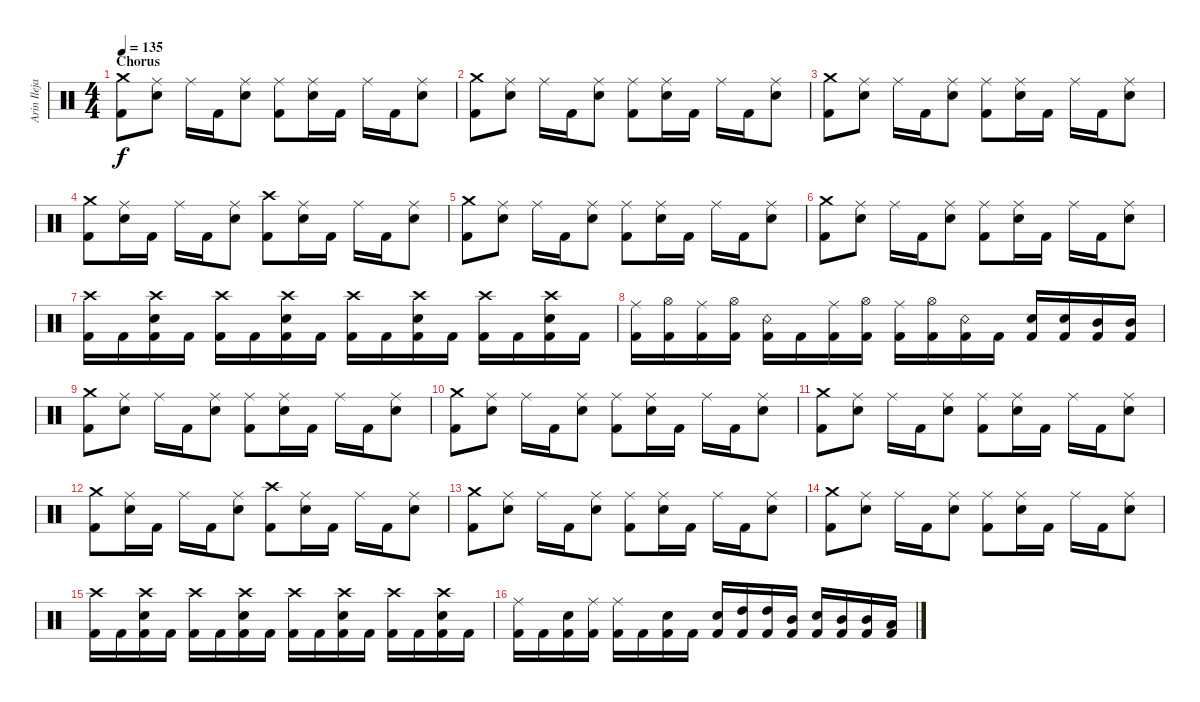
\track ("Arin Ilejay" "Arin Ileja") {instrument percussion}
\staff {score}
\articulation defaults
\ts (4 4)
\section ("" "Chorus")
\tempo 135
\clef neutral
\ks c
("Kick (hit) 2" "Crash medium (hit)").8{dy f} ("Ride (middle)" "Snare (hit) 2").8 "Ride (middle)".16 "Kick (hit) 2".16 ("Ride (middle)" "Snare (hit) 2").8 ("Ride (middle)" "Kick (hit) 2").8 ("Ride (middle)" "Snare (hit) 2").16 "Kick (hit) 2".16 "Ride (middle)".16 "Kick (hit) 2".16 ("Ride (middle)" "Snare (hit) 2").8 |
("Kick (hit) 2" "Crash medium (hit)").8 ("Ride (middle)" "Snare (hit) 2").8 "Ride (middle)".16 "Kick (hit) 2".16 ("Ride (middle)" "Snare (hit) 2").8 ("Ride (middle)" "Kick (hit) 2").8 ("Ride (middle)" "Snare (hit) 2").16 "Kick (hit) 2".16 "Ride (middle)".16 "Kick (hit) 2".16 ("Ride (middle)" "Snare (hit) 2").8 |
("Kick (hit) 2" "Crash medium (hit)").8 ("Ride (middle)" "Snare (hit) 2").8 "Ride (middle)".16 "Kick (hit) 2".16 ("Ride (middle)" "Snare (hit) 2").8 ("Kick (hit) 2" "Ride (middle)").8 ("Ride (middle)" "Snare (hit) 2").16 "Kick (hit) 2".16 "Ride (middle)".16 "Kick (hit) 2".16 ("Ride (middle)" "Snare (hit) 2").8 |
("Kick (hit) 2" "Crash medium (hit)").8 ("Ride (middle)" "Snare (hit) 2").16 "Kick (hit) 2".16 "Ride (middle)".16 "Kick (hit) 2".16 ("Ride (middle)" "Snare (hit) 2").8 ("Kick (hit) 2" "Crash high (hit)").8 ("Ride (middle)" "Snare (hit) 2").16 "Kick (hit) 2".16 "Ride (middle)".16 "Kick (hit) 2".16 ("Ride (middle)" "Snare (hit) 2").8 |
("Kick (hit) 2" "Crash medium (hit)").8 ("Ride (middle)" "Snare (hit) 2").8 "Ride (middle)".16 "Kick (hit) 2".16 ("Ride (middle)" "Snare (hit) 2").8 ("Ride (middle)" "Kick (hit) 2").8 ("Ride (middle)" "Snare (hit) 2").16 "Kick (hit) 2".16 "Ride (middle)".16 "Kick (hit) 2".16 ("Ride (middle)" "Snare (hit) 2").8 |
("Kick (hit) 2" "Crash medium (hit)").8 ("Ride (middle)" "Snare (hit) 2").8 "Ride (middle)".16 "Kick (hit) 2".16 ("Ride (middle)" "Snare (hit) 2").8 ("Kick (hit) 2" "Ride (middle)").8 ("Ride (middle)" "Snare (hit) 2").16 "Kick (hit) 2".16 "Ride (middle)".16 "Kick (hit) 2".16 ("Ride (middle)" "Snare (hit) 2").8 |
("Kick (hit) 2" "Crash high (hit)").16 "Kick (hit) 2".16 ("Kick (hit) 2" "Crash high (hit)" "Snare (hit) 2").16 "Kick (hit) 2".16 ("Kick (hit) 2" "Crash high (hit)").16 "Kick (hit) 2".16 ("Kick (hit) 2" "Crash high (hit)" "Snare (hit) 2").16 "Kick (hit) 2".16 ("Kick (hit) 2" "Crash high (hit)").16 "Kick (hit) 2".16 ("Kick (hit) 2" "Crash high (hit)" "Snare (hit) 2").16 "Kick (hit) 2".16 ("Kick (hit) 2" "Crash high (hit)").16 "Kick (hit) 2".16 ("Kick (hit) 2" "Crash high (hit)" "Snare (hit) 2").16 "Kick (hit) 2".16 |
("Ride (middle)" "Kick (hit) 2").16 ("Hi-Hat (open)" "Kick (hit) 2").16 ("Ride (middle)" "Kick (hit) 2").16 ("Hi-Hat (open)" "Kick (hit) 2").16 ("Kick (hit) 2" "Snare (rim shot)").16 "Kick (hit) 2".16 ("Ride (middle)" "Kick (hit) 2").16 ("Hi-Hat (open)" "Kick (hit) 2").16 ("Kick (hit) 2" "Ride (middle)").16 ("Hi-Hat (open)" "Kick (hit) 2").16 ("Snare (rim shot)" "Kick (hit) 2").16 "Kick (hit) 2".16 ("Kick (hit) 2" "Snare (hit) 2").16 ("Snare (hit) 2" "Kick (hit) 2").16 ("Mid Tom (hit)" "Kick (hit) 2").16 ("Mid Tom (hit)" "Kick (hit) 2").16 |
("Kick (hit) 2" "Crash medium (hit)").8 ("Ride (middle)" "Snare (hit) 2").8 "Ride (middle)".16 "Kick (hit) 2".16 ("Ride (middle)" "Snare (hit) 2").8 ("Ride (middle)" "Kick (hit) 2").8 ("Ride (middle)" "Snare (hit) 2").16 "Kick (hit) 2".16 "Ride (middle)".16 "Kick (hit) 2".16 ("Ride (middle)" "Snare (hit) 2").8 |
("Kick (hit) 2" "Crash medium (hit)").8 ("Ride (middle)" "Snare (hit) 2").8 "Ride (middle)".16 "Kick (hit) 2".16 ("Ride (middle)" "Snare (hit) 2").8 ("Ride (middle)" "Kick (hit) 2").8 ("Ride (middle)" "Snare (hit) 2").16 "Kick (hit) 2".16 "Ride (middle)".16 "Kick (hit) 2".16 ("Ride (middle)" "Snare (hit) 2").8 |
("Kick (hit) 2" "Crash medium (hit)").8 ("Ride (middle)" "Snare (hit) 2").8 "Ride (middle)".16 "Kick (hit) 2".16 ("Ride (middle)" "Snare (hit) 2").8 ("Kick (hit) 2" "Ride (middle)").8 ("Ride (middle)" "Snare (hit) 2").16 "Kick (hit) 2".16 "Ride (middle)".16 "Kick (hit) 2".16 ("Ride (middle)" "Snare (hit) 2").8 |
("Kick (hit) 2" "Crash medium (hit)").8 ("Ride (middle)" "Snare (hit) 2").16 "Kick (hit) 2".16 "Ride (middle)".16 "Kick (hit) 2".16 ("Ride (middle)" "Snare (hit) 2").8 ("Kick (hit) 2" "Crash high (hit)").8 ("Ride (middle)" "Snare (hit) 2").16 "Kick (hit) 2".16 "Ride (middle)".16 "Kick (hit) 2".16 ("Ride (middle)" "Snare (hit) 2").8 |
("Kick (hit) 2" "Crash medium (hit)").8 ("Ride (middle)" "Snare (hit) 2").8 "Ride (middle)".16 "Kick (hit) 2".16 ("Ride (middle)" "Snare (hit) 2").8 ("Ride (middle)" "Kick (hit) 2").8 ("Ride (middle)" "Snare (hit) 2").16 "Kick (hit) 2".16 "Ride (middle)".16 "Kick (hit) 2".16 ("Ride (middle)" "Snare (hit) 2").8 |
("Kick (hit) 2" "Crash medium (hit)").8 ("Ride (middle)" "Snare (hit) 2").8 "Ride (middle)".16 "Kick (hit) 2".16 ("Ride (middle)" "Snare (hit) 2").8 ("Kick (hit) 2" "Ride (middle)").8 ("Ride (middle)" "Snare (hit) 2").16 "Kick (hit) 2".16 "Ride (middle)".16 "Kick (hit) 2".16 ("Ride (middle)" "Snare (hit) 2").8 |
("Kick (hit) 2" "Crash high (hit)").16 "Kick (hit) 2".16 ("Kick (hit) 2" "Crash high (hit)" "Snare (hit) 2").16 "Kick (hit) 2".16 ("Kick (hit) 2" "Crash high (hit)").16 "Kick (hit) 2".16 ("Kick (hit) 2" "Crash high (hit)" "Snare (hit) 2").16 "Kick (hit) 2".16 ("Kick (hit) 2" "Crash high (hit)").16 "Kick (hit) 2".16 ("Kick (hit) 2" "Crash high (hit)" "Snare (hit) 2").16 "Kick (hit) 2".16 ("Kick (hit) 2" "Crash high (hit)").16 "Kick (hit) 2".16 ("Kick (hit) 2" "Crash high (hit)" "Snare (hit) 2").16 "Kick (hit) 2".16 |
("Kick (hit) 2" "Ride (middle)").16 "Kick (hit) 2".16 ("Kick (hit) 2" "Snare (hit) 2").16 ("Kick (hit) 2" "Ride (middle)").16 ("Kick (hit) 2" "Ride (middle)").16 "Kick (hit) 2".16 ("Kick (hit) 2" "Snare (hit) 2").16 "Kick (hit) 2".16 ("Kick (hit) 2" "Snare (hit) 2").16 ("Kick (hit) 2" "High Tom (hit)").16 ("Kick (hit) 2" "High Tom (hit)").16 ("Kick (hit) 2" "Mid Tom (hit)").16 ("Kick (hit) 2" "Snare (hit) 2").16 ("Kick (hit) 2" "Mid Tom (hit)").16 ("Kick (hit) 2" "Mid Tom (hit)").16 ("Kick (hit) 2" "Low Tom (hit)").16
